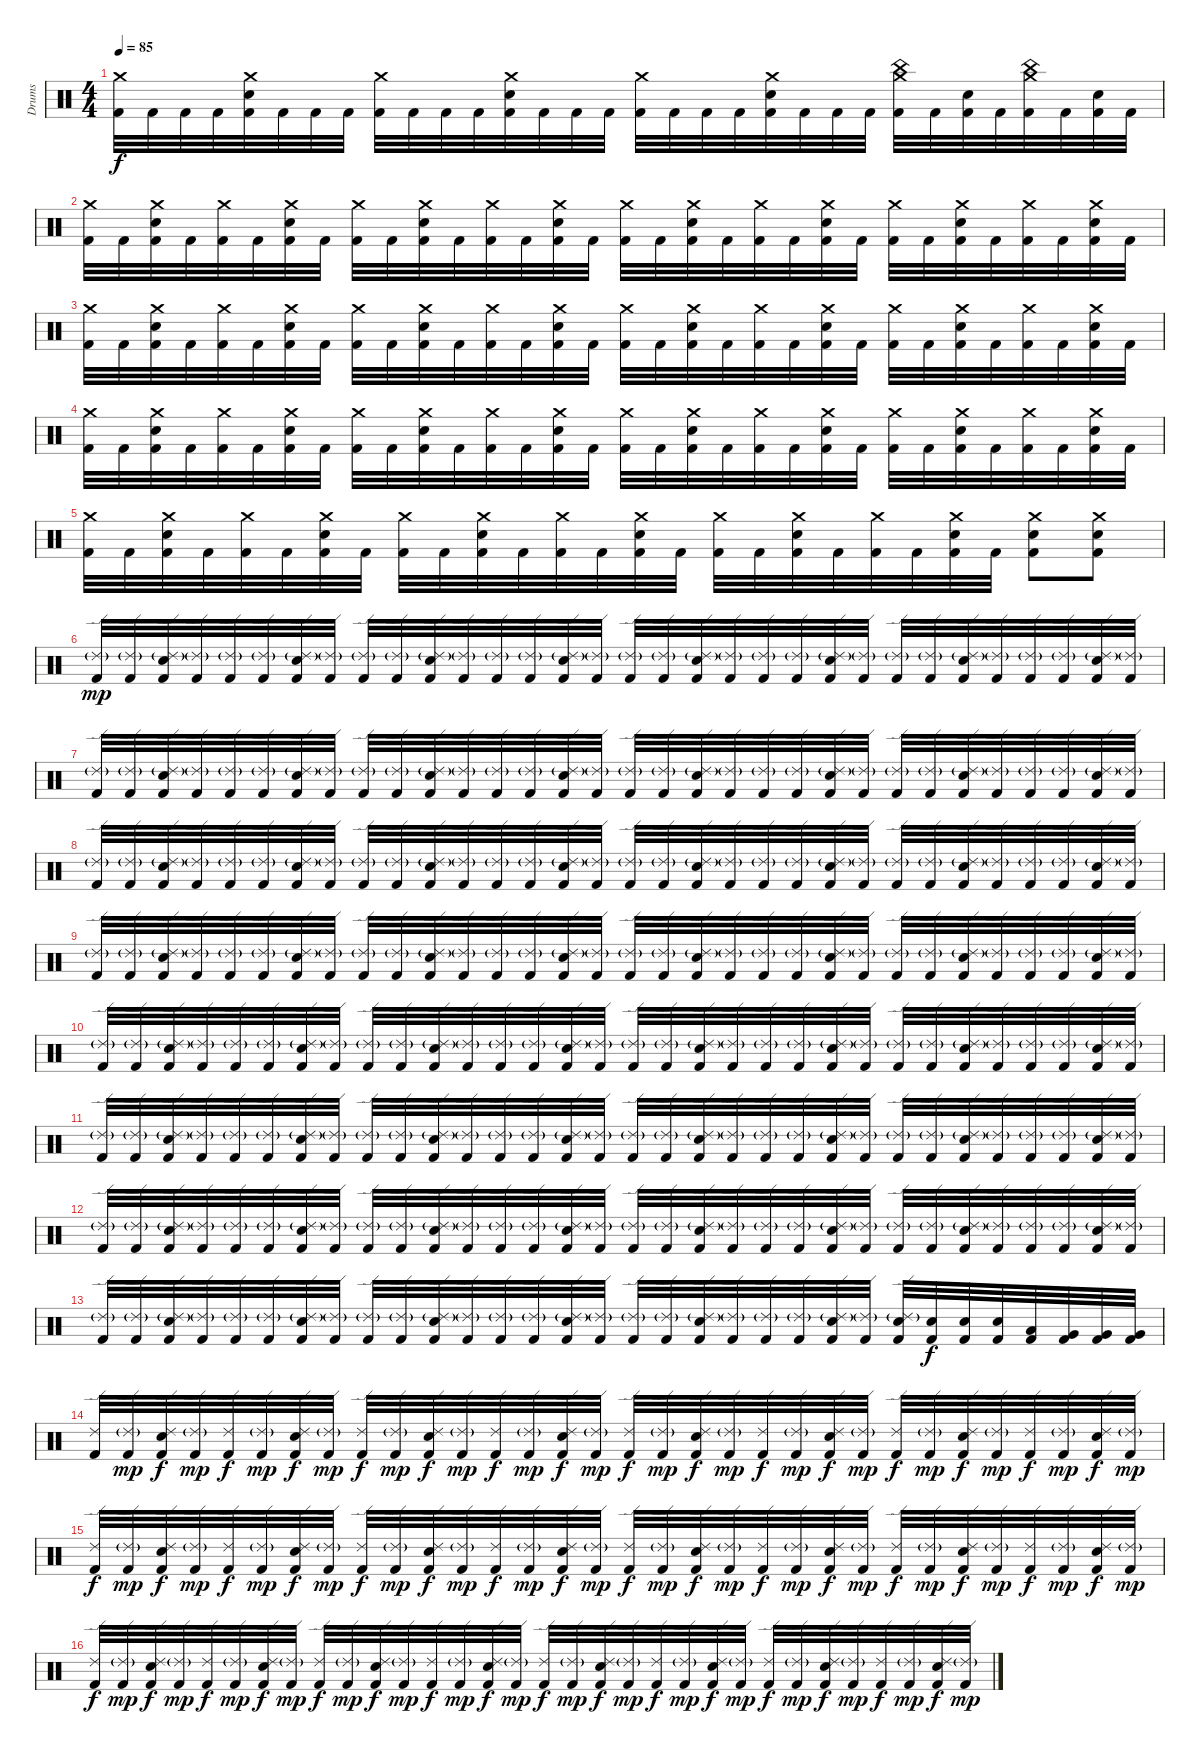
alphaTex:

\track ("Drums" "Drums") {instrument percussion}
\staff {score}
\articulation defaults
\ts (4 4)
\tempo 85
\clef neutral
\ks c
("Crash medium (hit)" "Kick (hit) 2").32{dy f} "Kick (hit) 2".32 "Kick (hit) 2".32 "Kick (hit) 2".32 ("Crash medium (hit)" "Snare (hit) 2" "Kick (hit) 2").32 "Kick (hit) 2".32 "Kick (hit) 2".32 "Kick (hit) 2".32 ("Crash medium (hit)" "Kick (hit) 2").32 "Kick (hit) 2".32 "Kick (hit) 2".32 "Kick (hit) 2".32 ("Crash medium (hit)" "Snare (hit) 2" "Kick (hit) 2").32 "Kick (hit) 2".32 "Kick (hit) 2".32 "Kick (hit) 2".32 ("Crash medium (hit)" "Kick (hit) 2").32 "Kick (hit) 2".32 "Kick (hit) 2".32 "Kick (hit) 2".32 ("Crash medium (hit)" "Snare (hit) 2" "Kick (hit) 2").32 "Kick (hit) 2".32 "Kick (hit) 2".32 "Kick (hit) 2".32 ("Crash medium (hit)" "China (hit)" "Kick (hit) 2").32 "Kick (hit) 2".32 ("Snare (hit) 2" "Kick (hit) 2").32 "Kick (hit) 2".32 ("Crash medium (hit)" "China (hit)" "Kick (hit) 2").32 "Kick (hit) 2".32 ("Snare (hit) 2" "Kick (hit) 2").32 "Kick (hit) 2".32 |
("Crash medium (hit)" "Kick (hit) 2").32 "Kick (hit) 2".32 ("Snare (hit) 2" "Crash medium (hit)" "Kick (hit) 2").32 "Kick (hit) 2".32 ("Crash medium (hit)" "Kick (hit) 2").32 "Kick (hit) 2".32 ("Snare (hit) 2" "Crash medium (hit)" "Kick (hit) 2").32 "Kick (hit) 2".32 ("Crash medium (hit)" "Kick (hit) 2").32 "Kick (hit) 2".32 ("Snare (hit) 2" "Crash medium (hit)" "Kick (hit) 2").32 "Kick (hit) 2".32 ("Crash medium (hit)" "Kick (hit) 2").32 "Kick (hit) 2".32 ("Snare (hit) 2" "Crash medium (hit)" "Kick (hit) 2").32 "Kick (hit) 2".32 ("Crash medium (hit)" "Kick (hit) 2").32 "Kick (hit) 2".32 ("Snare (hit) 2" "Crash medium (hit)" "Kick (hit) 2").32 "Kick (hit) 2".32 ("Crash medium (hit)" "Kick (hit) 2").32 "Kick (hit) 2".32 ("Snare (hit) 2" "Crash medium (hit)" "Kick (hit) 2").32 "Kick (hit) 2".32 ("Crash medium (hit)" "Kick (hit) 2").32 "Kick (hit) 2".32 ("Snare (hit) 2" "Crash medium (hit)" "Kick (hit) 2").32 "Kick (hit) 2".32 ("Crash medium (hit)" "Kick (hit) 2").32 "Kick (hit) 2".32 ("Snare (hit) 2" "Crash medium (hit)" "Kick (hit) 2").32 "Kick (hit) 2".32 |
("Crash medium (hit)" "Kick (hit) 2").32 "Kick (hit) 2".32 ("Snare (hit) 2" "Crash medium (hit)" "Kick (hit) 2").32 "Kick (hit) 2".32 ("Crash medium (hit)" "Kick (hit) 2").32 "Kick (hit) 2".32 ("Snare (hit) 2" "Crash medium (hit)" "Kick (hit) 2").32 "Kick (hit) 2".32 ("Crash medium (hit)" "Kick (hit) 2").32 "Kick (hit) 2".32 ("Snare (hit) 2" "Crash medium (hit)" "Kick (hit) 2").32 "Kick (hit) 2".32 ("Crash medium (hit)" "Kick (hit) 2").32 "Kick (hit) 2".32 ("Snare (hit) 2" "Crash medium (hit)" "Kick (hit) 2").32 "Kick (hit) 2".32 ("Crash medium (hit)" "Kick (hit) 2").32 "Kick (hit) 2".32 ("Snare (hit) 2" "Crash medium (hit)" "Kick (hit) 2").32 "Kick (hit) 2".32 ("Crash medium (hit)" "Kick (hit) 2").32 "Kick (hit) 2".32 ("Snare (hit) 2" "Crash medium (hit)" "Kick (hit) 2").32 "Kick (hit) 2".32 ("Crash medium (hit)" "Kick (hit) 2").32 "Kick (hit) 2".32 ("Snare (hit) 2" "Crash medium (hit)" "Kick (hit) 2").32 "Kick (hit) 2".32 ("Crash medium (hit)" "Kick (hit) 2").32 "Kick (hit) 2".32 ("Snare (hit) 2" "Crash medium (hit)" "Kick (hit) 2").32 "Kick (hit) 2".32 |
("Crash medium (hit)" "Kick (hit) 2").32 "Kick (hit) 2".32 ("Snare (hit) 2" "Crash medium (hit)" "Kick (hit) 2").32 "Kick (hit) 2".32 ("Crash medium (hit)" "Kick (hit) 2").32 "Kick (hit) 2".32 ("Snare (hit) 2" "Crash medium (hit)" "Kick (hit) 2").32 "Kick (hit) 2".32 ("Crash medium (hit)" "Kick (hit) 2").32 "Kick (hit) 2".32 ("Snare (hit) 2" "Crash medium (hit)" "Kick (hit) 2").32 "Kick (hit) 2".32 ("Crash medium (hit)" "Kick (hit) 2").32 "Kick (hit) 2".32 ("Snare (hit) 2" "Crash medium (hit)" "Kick (hit) 2").32 "Kick (hit) 2".32 ("Crash medium (hit)" "Kick (hit) 2").32 "Kick (hit) 2".32 ("Snare (hit) 2" "Crash medium (hit)" "Kick (hit) 2").32 "Kick (hit) 2".32 ("Crash medium (hit)" "Kick (hit) 2").32 "Kick (hit) 2".32 ("Snare (hit) 2" "Crash medium (hit)" "Kick (hit) 2").32 "Kick (hit) 2".32 ("Crash medium (hit)" "Kick (hit) 2").32 "Kick (hit) 2".32 ("Snare (hit) 2" "Crash medium (hit)" "Kick (hit) 2").32 "Kick (hit) 2".32 ("Crash medium (hit)" "Kick (hit) 2").32 "Kick (hit) 2".32 ("Snare (hit) 2" "Crash medium (hit)" "Kick (hit) 2").32 "Kick (hit) 2".32 |
("Crash medium (hit)" "Kick (hit) 2").32 "Kick (hit) 2".32 ("Snare (hit) 2" "Crash medium (hit)" "Kick (hit) 2").32 "Kick (hit) 2".32 ("Crash medium (hit)" "Kick (hit) 2").32 "Kick (hit) 2".32 ("Snare (hit) 2" "Crash medium (hit)" "Kick (hit) 2").32 "Kick (hit) 2".32 ("Crash medium (hit)" "Kick (hit) 2").32 "Kick (hit) 2".32 ("Snare (hit) 2" "Crash medium (hit)" "Kick (hit) 2").32 "Kick (hit) 2".32 ("Crash medium (hit)" "Kick (hit) 2").32 "Kick (hit) 2".32 ("Snare (hit) 2" "Crash medium (hit)" "Kick (hit) 2").32 "Kick (hit) 2".32 ("Crash medium (hit)" "Kick (hit) 2").32 "Kick (hit) 2".32 ("Snare (hit) 2" "Crash medium (hit)" "Kick (hit) 2").32 "Kick (hit) 2".32 ("Crash medium (hit)" "Kick (hit) 2").32 "Kick (hit) 2".32 ("Snare (hit) 2" "Crash medium (hit)" "Kick (hit) 2").32 "Kick (hit) 2".32 ("Snare (hit) 2" "Crash medium (hit)" "Kick (hit) 2").8 ("Snare (hit) 2" "Crash medium (hit)" "Kick (hit) 2").8 |
("Ride (edge) 2"{g} "Kick (hit) 2").32{dy mp} ("Ride (edge) 2"{g} "Kick (hit) 2").32 ("Snare (hit) 2" "Ride (edge) 2"{g} "Kick (hit) 2").32 ("Ride (edge) 2"{g} "Kick (hit) 2").32 ("Ride (edge) 2"{g} "Kick (hit) 2").32 ("Ride (edge) 2"{g} "Kick (hit) 2").32 ("Snare (hit) 2" "Ride (edge) 2"{g} "Kick (hit) 2").32 ("Ride (edge) 2"{g} "Kick (hit) 2").32 ("Ride (edge) 2"{g} "Kick (hit) 2").32 ("Ride (edge) 2"{g} "Kick (hit) 2").32 ("Snare (hit) 2" "Ride (edge) 2"{g} "Kick (hit) 2").32 ("Ride (edge) 2"{g} "Kick (hit) 2").32 ("Ride (edge) 2"{g} "Kick (hit) 2").32 ("Ride (edge) 2"{g} "Kick (hit) 2").32 ("Snare (hit) 2" "Ride (edge) 2"{g} "Kick (hit) 2").32 ("Ride (edge) 2"{g} "Kick (hit) 2").32 ("Ride (edge) 2"{g} "Kick (hit) 2").32 ("Ride (edge) 2"{g} "Kick (hit) 2").32 ("Snare (hit) 2" "Ride (edge) 2"{g} "Kick (hit) 2").32 ("Ride (edge) 2"{g} "Kick (hit) 2").32 ("Ride (edge) 2"{g} "Kick (hit) 2").32 ("Ride (edge) 2"{g} "Kick (hit) 2").32 ("Snare (hit) 2" "Ride (edge) 2"{g} "Kick (hit) 2").32 ("Ride (edge) 2"{g} "Kick (hit) 2").32 ("Ride (edge) 2"{g} "Kick (hit) 2").32 ("Ride (edge) 2"{g} "Kick (hit) 2").32 ("Snare (hit) 2" "Ride (edge) 2"{g} "Kick (hit) 2").32 ("Ride (edge) 2"{g} "Kick (hit) 2").32 ("Ride (edge) 2"{g} "Kick (hit) 2").32 ("Ride (edge) 2"{g} "Kick (hit) 2").32 ("Snare (hit) 2" "Ride (edge) 2"{g} "Kick (hit) 2").32 ("Ride (edge) 2"{g} "Kick (hit) 2").32 |
("Ride (edge) 2"{g} "Kick (hit) 2").32 ("Ride (edge) 2"{g} "Kick (hit) 2").32 ("Snare (hit) 2" "Ride (edge) 2"{g} "Kick (hit) 2").32 ("Ride (edge) 2"{g} "Kick (hit) 2").32 ("Ride (edge) 2"{g} "Kick (hit) 2").32 ("Ride (edge) 2"{g} "Kick (hit) 2").32 ("Snare (hit) 2" "Ride (edge) 2"{g} "Kick (hit) 2").32 ("Ride (edge) 2"{g} "Kick (hit) 2").32 ("Ride (edge) 2"{g} "Kick (hit) 2").32 ("Ride (edge) 2"{g} "Kick (hit) 2").32 ("Snare (hit) 2" "Ride (edge) 2"{g} "Kick (hit) 2").32 ("Ride (edge) 2"{g} "Kick (hit) 2").32 ("Ride (edge) 2"{g} "Kick (hit) 2").32 ("Ride (edge) 2"{g} "Kick (hit) 2").32 ("Snare (hit) 2" "Ride (edge) 2"{g} "Kick (hit) 2").32 ("Ride (edge) 2"{g} "Kick (hit) 2").32 ("Ride (edge) 2"{g} "Kick (hit) 2").32 ("Ride (edge) 2"{g} "Kick (hit) 2").32 ("Snare (hit) 2" "Ride (edge) 2"{g} "Kick (hit) 2").32 ("Ride (edge) 2"{g} "Kick (hit) 2").32 ("Ride (edge) 2"{g} "Kick (hit) 2").32 ("Ride (edge) 2"{g} "Kick (hit) 2").32 ("Snare (hit) 2" "Ride (edge) 2"{g} "Kick (hit) 2").32 ("Ride (edge) 2"{g} "Kick (hit) 2").32 ("Ride (edge) 2"{g} "Kick (hit) 2").32 ("Ride (edge) 2"{g} "Kick (hit) 2").32 ("Snare (hit) 2" "Ride (edge) 2"{g} "Kick (hit) 2").32 ("Ride (edge) 2"{g} "Kick (hit) 2").32 ("Ride (edge) 2"{g} "Kick (hit) 2").32 ("Ride (edge) 2"{g} "Kick (hit) 2").32 ("Snare (hit) 2" "Ride (edge) 2"{g} "Kick (hit) 2").32 ("Ride (edge) 2"{g} "Kick (hit) 2").32 |
("Ride (edge) 2"{g} "Kick (hit) 2").32 ("Ride (edge) 2"{g} "Kick (hit) 2").32 ("Snare (hit) 2" "Ride (edge) 2"{g} "Kick (hit) 2").32 ("Ride (edge) 2"{g} "Kick (hit) 2").32 ("Ride (edge) 2"{g} "Kick (hit) 2").32 ("Ride (edge) 2"{g} "Kick (hit) 2").32 ("Snare (hit) 2" "Ride (edge) 2"{g} "Kick (hit) 2").32 ("Ride (edge) 2"{g} "Kick (hit) 2").32 ("Ride (edge) 2"{g} "Kick (hit) 2").32 ("Ride (edge) 2"{g} "Kick (hit) 2").32 ("Snare (hit) 2" "Ride (edge) 2"{g} "Kick (hit) 2").32 ("Ride (edge) 2"{g} "Kick (hit) 2").32 ("Ride (edge) 2"{g} "Kick (hit) 2").32 ("Ride (edge) 2"{g} "Kick (hit) 2").32 ("Snare (hit) 2" "Ride (edge) 2"{g} "Kick (hit) 2").32 ("Ride (edge) 2"{g} "Kick (hit) 2").32 ("Ride (edge) 2"{g} "Kick (hit) 2").32 ("Ride (edge) 2"{g} "Kick (hit) 2").32 ("Snare (hit) 2" "Ride (edge) 2"{g} "Kick (hit) 2").32 ("Ride (edge) 2"{g} "Kick (hit) 2").32 ("Ride (edge) 2"{g} "Kick (hit) 2").32 ("Ride (edge) 2"{g} "Kick (hit) 2").32 ("Snare (hit) 2" "Ride (edge) 2"{g} "Kick (hit) 2").32 ("Ride (edge) 2"{g} "Kick (hit) 2").32 ("Ride (edge) 2"{g} "Kick (hit) 2").32 ("Ride (edge) 2"{g} "Kick (hit) 2").32 ("Snare (hit) 2" "Ride (edge) 2"{g} "Kick (hit) 2").32 ("Ride (edge) 2"{g} "Kick (hit) 2").32 ("Ride (edge) 2"{g} "Kick (hit) 2").32 ("Ride (edge) 2"{g} "Kick (hit) 2").32 ("Snare (hit) 2" "Ride (edge) 2"{g} "Kick (hit) 2").32 ("Ride (edge) 2"{g} "Kick (hit) 2").32 |
("Ride (edge) 2"{g} "Kick (hit) 2").32 ("Ride (edge) 2"{g} "Kick (hit) 2").32 ("Snare (hit) 2" "Ride (edge) 2"{g} "Kick (hit) 2").32 ("Ride (edge) 2"{g} "Kick (hit) 2").32 ("Ride (edge) 2"{g} "Kick (hit) 2").32 ("Ride (edge) 2"{g} "Kick (hit) 2").32 ("Snare (hit) 2" "Ride (edge) 2"{g} "Kick (hit) 2").32 ("Ride (edge) 2"{g} "Kick (hit) 2").32 ("Ride (edge) 2"{g} "Kick (hit) 2").32 ("Ride (edge) 2"{g} "Kick (hit) 2").32 ("Snare (hit) 2" "Ride (edge) 2"{g} "Kick (hit) 2").32 ("Ride (edge) 2"{g} "Kick (hit) 2").32 ("Ride (edge) 2"{g} "Kick (hit) 2").32 ("Ride (edge) 2"{g} "Kick (hit) 2").32 ("Snare (hit) 2" "Ride (edge) 2"{g} "Kick (hit) 2").32 ("Ride (edge) 2"{g} "Kick (hit) 2").32 ("Ride (edge) 2"{g} "Kick (hit) 2").32 ("Ride (edge) 2"{g} "Kick (hit) 2").32 ("Snare (hit) 2" "Ride (edge) 2"{g} "Kick (hit) 2").32 ("Ride (edge) 2"{g} "Kick (hit) 2").32 ("Ride (edge) 2"{g} "Kick (hit) 2").32 ("Ride (edge) 2"{g} "Kick (hit) 2").32 ("Snare (hit) 2" "Ride (edge) 2"{g} "Kick (hit) 2").32 ("Ride (edge) 2"{g} "Kick (hit) 2").32 ("Ride (edge) 2"{g} "Kick (hit) 2").32 ("Ride (edge) 2"{g} "Kick (hit) 2").32 ("Snare (hit) 2" "Ride (edge) 2"{g} "Kick (hit) 2").32 ("Ride (edge) 2"{g} "Kick (hit) 2").32 ("Ride (edge) 2"{g} "Kick (hit) 2").32 ("Ride (edge) 2"{g} "Kick (hit) 2").32 ("Snare (hit) 2" "Ride (edge) 2"{g} "Kick (hit) 2").32 ("Ride (edge) 2"{g} "Kick (hit) 2").32 |
("Ride (edge) 2"{g} "Kick (hit) 2").32 ("Ride (edge) 2"{g} "Kick (hit) 2").32 ("Snare (hit) 2" "Ride (edge) 2"{g} "Kick (hit) 2").32 ("Ride (edge) 2"{g} "Kick (hit) 2").32 ("Ride (edge) 2"{g} "Kick (hit) 2").32 ("Ride (edge) 2"{g} "Kick (hit) 2").32 ("Snare (hit) 2" "Ride (edge) 2"{g} "Kick (hit) 2").32 ("Ride (edge) 2"{g} "Kick (hit) 2").32 ("Ride (edge) 2"{g} "Kick (hit) 2").32 ("Ride (edge) 2"{g} "Kick (hit) 2").32 ("Snare (hit) 2" "Ride (edge) 2"{g} "Kick (hit) 2").32 ("Ride (edge) 2"{g} "Kick (hit) 2").32 ("Ride (edge) 2"{g} "Kick (hit) 2").32 ("Ride (edge) 2"{g} "Kick (hit) 2").32 ("Snare (hit) 2" "Ride (edge) 2"{g} "Kick (hit) 2").32 ("Ride (edge) 2"{g} "Kick (hit) 2").32 ("Ride (edge) 2"{g} "Kick (hit) 2").32 ("Ride (edge) 2"{g} "Kick (hit) 2").32 ("Snare (hit) 2" "Ride (edge) 2"{g} "Kick (hit) 2").32 ("Ride (edge) 2"{g} "Kick (hit) 2").32 ("Ride (edge) 2"{g} "Kick (hit) 2").32 ("Ride (edge) 2"{g} "Kick (hit) 2").32 ("Snare (hit) 2" "Ride (edge) 2"{g} "Kick (hit) 2").32 ("Ride (edge) 2"{g} "Kick (hit) 2").32 ("Ride (edge) 2"{g} "Kick (hit) 2").32 ("Ride (edge) 2"{g} "Kick (hit) 2").32 ("Snare (hit) 2" "Ride (edge) 2"{g} "Kick (hit) 2").32 ("Ride (edge) 2"{g} "Kick (hit) 2").32 ("Ride (edge) 2"{g} "Kick (hit) 2").32 ("Ride (edge) 2"{g} "Kick (hit) 2").32 ("Snare (hit) 2" "Ride (edge) 2"{g} "Kick (hit) 2").32 ("Ride (edge) 2"{g} "Kick (hit) 2").32 |
("Ride (edge) 2"{g} "Kick (hit) 2").32 ("Ride (edge) 2"{g} "Kick (hit) 2").32 ("Snare (hit) 2" "Ride (edge) 2"{g} "Kick (hit) 2").32 ("Ride (edge) 2"{g} "Kick (hit) 2").32 ("Ride (edge) 2"{g} "Kick (hit) 2").32 ("Ride (edge) 2"{g} "Kick (hit) 2").32 ("Snare (hit) 2" "Ride (edge) 2"{g} "Kick (hit) 2").32 ("Ride (edge) 2"{g} "Kick (hit) 2").32 ("Ride (edge) 2"{g} "Kick (hit) 2").32 ("Ride (edge) 2"{g} "Kick (hit) 2").32 ("Snare (hit) 2" "Ride (edge) 2"{g} "Kick (hit) 2").32 ("Ride (edge) 2"{g} "Kick (hit) 2").32 ("Ride (edge) 2"{g} "Kick (hit) 2").32 ("Ride (edge) 2"{g} "Kick (hit) 2").32 ("Snare (hit) 2" "Ride (edge) 2"{g} "Kick (hit) 2").32 ("Ride (edge) 2"{g} "Kick (hit) 2").32 ("Ride (edge) 2"{g} "Kick (hit) 2").32 ("Ride (edge) 2"{g} "Kick (hit) 2").32 ("Snare (hit) 2" "Ride (edge) 2"{g} "Kick (hit) 2").32 ("Ride (edge) 2"{g} "Kick (hit) 2").32 ("Ride (edge) 2"{g} "Kick (hit) 2").32 ("Ride (edge) 2"{g} "Kick (hit) 2").32 ("Snare (hit) 2" "Ride (edge) 2"{g} "Kick (hit) 2").32 ("Ride (edge) 2"{g} "Kick (hit) 2").32 ("Ride (edge) 2"{g} "Kick (hit) 2").32 ("Ride (edge) 2"{g} "Kick (hit) 2").32 ("Snare (hit) 2" "Ride (edge) 2"{g} "Kick (hit) 2").32 ("Ride (edge) 2"{g} "Kick (hit) 2").32 ("Ride (edge) 2"{g} "Kick (hit) 2").32 ("Ride (edge) 2"{g} "Kick (hit) 2").32 ("Snare (hit) 2" "Ride (edge) 2"{g} "Kick (hit) 2").32 ("Ride (edge) 2"{g} "Kick (hit) 2").32 |
("Ride (edge) 2"{g} "Kick (hit) 2").32 ("Ride (edge) 2"{g} "Kick (hit) 2").32 ("Snare (hit) 2" "Ride (edge) 2"{g} "Kick (hit) 2").32 ("Ride (edge) 2"{g} "Kick (hit) 2").32 ("Ride (edge) 2"{g} "Kick (hit) 2").32 ("Ride (edge) 2"{g} "Kick (hit) 2").32 ("Snare (hit) 2" "Ride (edge) 2"{g} "Kick (hit) 2").32 ("Ride (edge) 2"{g} "Kick (hit) 2").32 ("Ride (edge) 2"{g} "Kick (hit) 2").32 ("Ride (edge) 2"{g} "Kick (hit) 2").32 ("Snare (hit) 2" "Ride (edge) 2"{g} "Kick (hit) 2").32 ("Ride (edge) 2"{g} "Kick (hit) 2").32 ("Ride (edge) 2"{g} "Kick (hit) 2").32 ("Ride (edge) 2"{g} "Kick (hit) 2").32 ("Snare (hit) 2" "Ride (edge) 2"{g} "Kick (hit) 2").32 ("Ride (edge) 2"{g} "Kick (hit) 2").32 ("Ride (edge) 2"{g} "Kick (hit) 2").32 ("Ride (edge) 2"{g} "Kick (hit) 2").32 ("Snare (hit) 2" "Ride (edge) 2"{g} "Kick (hit) 2").32 ("Ride (edge) 2"{g} "Kick (hit) 2").32 ("Ride (edge) 2"{g} "Kick (hit) 2").32 ("Ride (edge) 2"{g} "Kick (hit) 2").32 ("Snare (hit) 2" "Ride (edge) 2"{g} "Kick (hit) 2").32 ("Ride (edge) 2"{g} "Kick (hit) 2").32 ("Ride (edge) 2"{g} "Kick (hit) 2").32 ("Ride (edge) 2"{g} "Kick (hit) 2").32 ("Snare (hit) 2" "Ride (edge) 2"{g} "Kick (hit) 2").32 ("Ride (edge) 2"{g} "Kick (hit) 2").32 ("Ride (edge) 2"{g} "Kick (hit) 2").32 ("Ride (edge) 2"{g} "Kick (hit) 2").32 ("Snare (hit) 2" "Ride (edge) 2"{g} "Kick (hit) 2").32 ("Ride (edge) 2"{g} "Kick (hit) 2").32 |
("Ride (edge) 2"{g} "Kick (hit) 2").32 ("Ride (edge) 2"{g} "Kick (hit) 2").32 ("Snare (hit) 2" "Ride (edge) 2"{g} "Kick (hit) 2").32 ("Ride (edge) 2"{g} "Kick (hit) 2").32 ("Ride (edge) 2"{g} "Kick (hit) 2").32 ("Ride (edge) 2"{g} "Kick (hit) 2").32 ("Snare (hit) 2" "Ride (edge) 2"{g} "Kick (hit) 2").32 ("Ride (edge) 2"{g} "Kick (hit) 2").32 ("Ride (edge) 2"{g} "Kick (hit) 2").32 ("Ride (edge) 2"{g} "Kick (hit) 2").32 ("Snare (hit) 2" "Ride (edge) 2"{g} "Kick (hit) 2").32 ("Ride (edge) 2"{g} "Kick (hit) 2").32 ("Ride (edge) 2"{g} "Kick (hit) 2").32 ("Ride (edge) 2"{g} "Kick (hit) 2").32 ("Snare (hit) 2" "Ride (edge) 2"{g} "Kick (hit) 2").32 ("Ride (edge) 2"{g} "Kick (hit) 2").32 ("Ride (edge) 2"{g} "Kick (hit) 2").32 ("Ride (edge) 2"{g} "Kick (hit) 2").32 ("Snare (hit) 2" "Ride (edge) 2"{g} "Kick (hit) 2").32 ("Ride (edge) 2"{g} "Kick (hit) 2").32 ("Ride (edge) 2"{g} "Kick (hit) 2").32 ("Ride (edge) 2"{g} "Kick (hit) 2").32 ("Snare (hit) 2" "Ride (edge) 2"{g} "Kick (hit) 2").32 ("Ride (edge) 2"{g} "Kick (hit) 2").32 ("Snare (hit) 2" "Ride (edge) 2"{g} "Kick (hit) 2").32 ("Snare (hit) 2" "Kick (hit) 2").32{dy f} ("Snare (hit) 2" "Kick (hit) 2").32 ("Snare (hit) 2" "Kick (hit) 2").32 ("Low Tom (hit)" "Kick (hit) 2").32 ("Very Low Tom (hit)" "Kick (hit) 2").32 ("Very Low Tom (hit)" "Kick (hit) 2").32 ("Very Low Tom (hit)" "Kick (hit) 2").32 |
("Ride (edge) 2" "Kick (hit) 2").32 ("Ride (edge) 2"{g} "Kick (hit) 2").32{dy mp} ("Snare (hit) 2" "Ride (edge) 2" "Kick (hit) 2").32{dy f} ("Ride (edge) 2"{g} "Kick (hit) 2").32{dy mp} ("Ride (edge) 2" "Kick (hit) 2").32{dy f} ("Ride (edge) 2"{g} "Kick (hit) 2").32{dy mp} ("Snare (hit) 2" "Ride (edge) 2" "Kick (hit) 2").32{dy f} ("Ride (edge) 2"{g} "Kick (hit) 2").32{dy mp} ("Ride (edge) 2" "Kick (hit) 2").32{dy f} ("Ride (edge) 2"{g} "Kick (hit) 2").32{dy mp} ("Snare (hit) 2" "Ride (edge) 2" "Kick (hit) 2").32{dy f} ("Ride (edge) 2"{g} "Kick (hit) 2").32{dy mp} ("Ride (edge) 2" "Kick (hit) 2").32{dy f} ("Ride (edge) 2"{g} "Kick (hit) 2").32{dy mp} ("Snare (hit) 2" "Ride (edge) 2" "Kick (hit) 2").32{dy f} ("Ride (edge) 2"{g} "Kick (hit) 2").32{dy mp} ("Ride (edge) 2" "Kick (hit) 2").32{dy f} ("Ride (edge) 2"{g} "Kick (hit) 2").32{dy mp} ("Snare (hit) 2" "Ride (edge) 2" "Kick (hit) 2").32{dy f} ("Ride (edge) 2"{g} "Kick (hit) 2").32{dy mp} ("Ride (edge) 2" "Kick (hit) 2").32{dy f} ("Ride (edge) 2"{g} "Kick (hit) 2").32{dy mp} ("Snare (hit) 2" "Ride (edge) 2" "Kick (hit) 2").32{dy f} ("Ride (edge) 2"{g} "Kick (hit) 2").32{dy mp} ("Ride (edge) 2" "Kick (hit) 2").32{dy f} ("Ride (edge) 2"{g} "Kick (hit) 2").32{dy mp} ("Snare (hit) 2" "Ride (edge) 2" "Kick (hit) 2").32{dy f} ("Ride (edge) 2"{g} "Kick (hit) 2").32{dy mp} ("Ride (edge) 2" "Kick (hit) 2").32{dy f} ("Ride (edge) 2"{g} "Kick (hit) 2").32{dy mp} ("Snare (hit) 2" "Ride (edge) 2" "Kick (hit) 2").32{dy f} ("Ride (edge) 2"{g} "Kick (hit) 2").32{dy mp} |
("Ride (edge) 2" "Kick (hit) 2").32{dy f} ("Ride (edge) 2"{g} "Kick (hit) 2").32{dy mp} ("Snare (hit) 2" "Ride (edge) 2" "Kick (hit) 2").32{dy f} ("Ride (edge) 2"{g} "Kick (hit) 2").32{dy mp} ("Ride (edge) 2" "Kick (hit) 2").32{dy f} ("Ride (edge) 2"{g} "Kick (hit) 2").32{dy mp} ("Snare (hit) 2" "Ride (edge) 2" "Kick (hit) 2").32{dy f} ("Ride (edge) 2"{g} "Kick (hit) 2").32{dy mp} ("Ride (edge) 2" "Kick (hit) 2").32{dy f} ("Ride (edge) 2"{g} "Kick (hit) 2").32{dy mp} ("Snare (hit) 2" "Ride (edge) 2" "Kick (hit) 2").32{dy f} ("Ride (edge) 2"{g} "Kick (hit) 2").32{dy mp} ("Ride (edge) 2" "Kick (hit) 2").32{dy f} ("Ride (edge) 2"{g} "Kick (hit) 2").32{dy mp} ("Snare (hit) 2" "Ride (edge) 2" "Kick (hit) 2").32{dy f} ("Ride (edge) 2"{g} "Kick (hit) 2").32{dy mp} ("Ride (edge) 2" "Kick (hit) 2").32{dy f} ("Ride (edge) 2"{g} "Kick (hit) 2").32{dy mp} ("Snare (hit) 2" "Ride (edge) 2" "Kick (hit) 2").32{dy f} ("Ride (edge) 2"{g} "Kick (hit) 2").32{dy mp} ("Ride (edge) 2" "Kick (hit) 2").32{dy f} ("Ride (edge) 2"{g} "Kick (hit) 2").32{dy mp} ("Snare (hit) 2" "Ride (edge) 2" "Kick (hit) 2").32{dy f} ("Ride (edge) 2"{g} "Kick (hit) 2").32{dy mp} ("Ride (edge) 2" "Kick (hit) 2").32{dy f} ("Ride (edge) 2"{g} "Kick (hit) 2").32{dy mp} ("Snare (hit) 2" "Ride (edge) 2" "Kick (hit) 2").32{dy f} ("Ride (edge) 2"{g} "Kick (hit) 2").32{dy mp} ("Ride (edge) 2" "Kick (hit) 2").32{dy f} ("Ride (edge) 2"{g} "Kick (hit) 2").32{dy mp} ("Snare (hit) 2" "Ride (edge) 2" "Kick (hit) 2").32{dy f} ("Ride (edge) 2"{g} "Kick (hit) 2").32{dy mp} |
("Ride (edge) 2" "Kick (hit) 2").32{dy f} ("Ride (edge) 2"{g} "Kick (hit) 2").32{dy mp} ("Snare (hit) 2" "Ride (edge) 2" "Kick (hit) 2").32{dy f} ("Ride (edge) 2"{g} "Kick (hit) 2").32{dy mp} ("Ride (edge) 2" "Kick (hit) 2").32{dy f} ("Ride (edge) 2"{g} "Kick (hit) 2").32{dy mp} ("Snare (hit) 2" "Ride (edge) 2" "Kick (hit) 2").32{dy f} ("Ride (edge) 2"{g} "Kick (hit) 2").32{dy mp} ("Ride (edge) 2" "Kick (hit) 2").32{dy f} ("Ride (edge) 2"{g} "Kick (hit) 2").32{dy mp} ("Snare (hit) 2" "Ride (edge) 2" "Kick (hit) 2").32{dy f} ("Ride (edge) 2"{g} "Kick (hit) 2").32{dy mp} ("Ride (edge) 2" "Kick (hit) 2").32{dy f} ("Ride (edge) 2"{g} "Kick (hit) 2").32{dy mp} ("Snare (hit) 2" "Ride (edge) 2" "Kick (hit) 2").32{dy f} ("Ride (edge) 2"{g} "Kick (hit) 2").32{dy mp} ("Ride (edge) 2" "Kick (hit) 2").32{dy f} ("Ride (edge) 2"{g} "Kick (hit) 2").32{dy mp} ("Snare (hit) 2" "Ride (edge) 2" "Kick (hit) 2").32{dy f} ("Ride (edge) 2"{g} "Kick (hit) 2").32{dy mp} ("Ride (edge) 2" "Kick (hit) 2").32{dy f} ("Ride (edge) 2"{g} "Kick (hit) 2").32{dy mp} ("Snare (hit) 2" "Ride (edge) 2" "Kick (hit) 2").32{dy f} ("Ride (edge) 2"{g} "Kick (hit) 2").32{dy mp} ("Ride (edge) 2" "Kick (hit) 2").32{dy f} ("Ride (edge) 2"{g} "Kick (hit) 2").32{dy mp} ("Snare (hit) 2" "Ride (edge) 2" "Kick (hit) 2").32{dy f} ("Ride (edge) 2"{g} "Kick (hit) 2").32{dy mp} ("Ride (edge) 2" "Kick (hit) 2").32{dy f} ("Ride (edge) 2"{g} "Kick (hit) 2").32{dy mp} ("Snare (hit) 2" "Ride (edge) 2" "Kick (hit) 2").32{dy f} ("Ride (edge) 2"{g} "Kick (hit) 2").32{dy mp}
